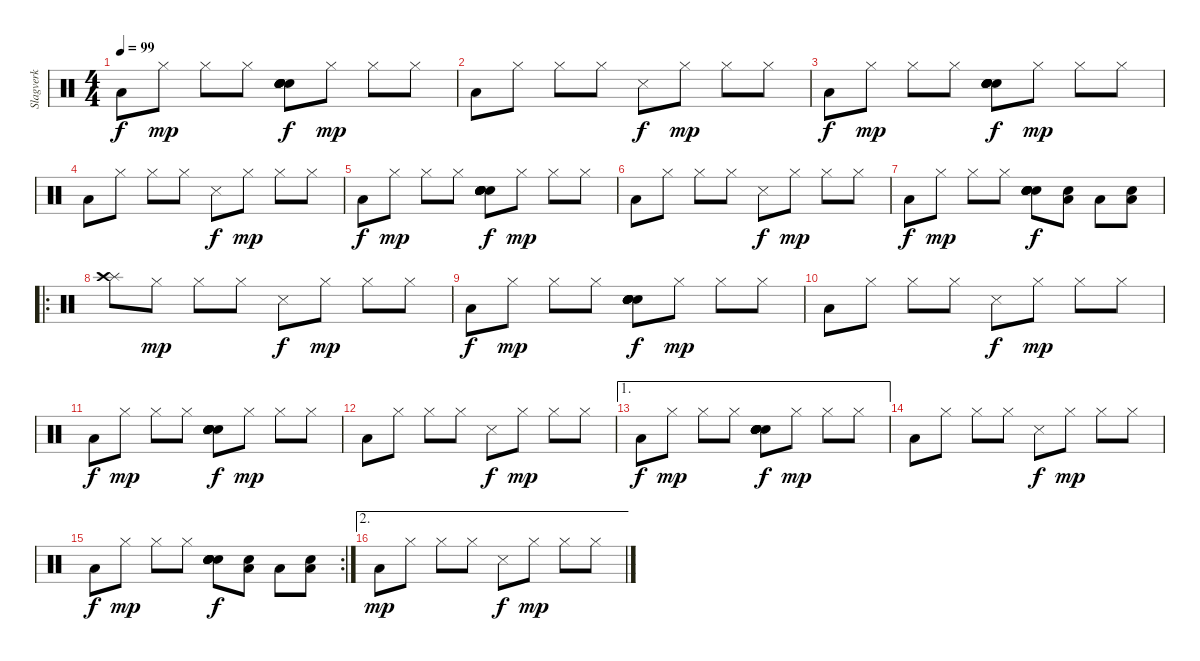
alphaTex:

\track ("Slagverk" "Slagverk") {instrument percussion}
\staff {score}
\articulation defaults
\ts (4 4)
\tempo 99
\clef neutral
\ks c "Low Tom (hit)".8{dy f} "Hi-Hat (closed)".8{dy mp} "Hi-Hat (closed)".8 "Hi-Hat (closed)".8
("Snare (hit) 2" "Snare (hit) 2" "Snare (hit) 2" "Snare (hit) 2" "Electric Snare (hit)" "Snare (hit) 2").8{dy f} "Hi-Hat (closed)".8{dy mp} "Hi-Hat (closed)".8 "Hi-Hat (closed)".8 |
"Low Tom (hit)".8 "Hi-Hat (closed)".8 "Hi-Hat (closed)".8 "Hi-Hat (closed)".8 "Snare (side stick) 3".8{dy f} "Hi-Hat (closed)".8{dy mp} "Hi-Hat (closed)".8 "Hi-Hat (closed)".8 |
"Low Tom (hit)".8{dy f} "Hi-Hat (closed)".8{dy mp} "Hi-Hat (closed)".8 "Hi-Hat (closed)".8 ("Snare (hit) 2" "Snare (hit) 2" "Snare (hit) 2" "Snare (hit) 2" "Electric Snare (hit)" "Snare (hit) 2").8{dy f} "Hi-Hat (closed)".8{dy mp} "Hi-Hat (closed)".8 "Hi-Hat (closed)".8 |
"Low Tom (hit)".8 "Hi-Hat (closed)".8 "Hi-Hat (closed)".8 "Hi-Hat (closed)".8 "Snare (side stick) 3".8{dy f} "Hi-Hat (closed)".8{dy mp} "Hi-Hat (closed)".8 "Hi-Hat (closed)".8 |
"Low Tom (hit)".8{dy f} "Hi-Hat (closed)".8{dy mp} "Hi-Hat (closed)".8 "Hi-Hat (closed)".8 ("Snare (hit) 2" "Snare (hit) 2" "Snare (hit) 2" "Snare (hit) 2" "Electric Snare (hit)" "Snare (hit) 2").8{dy f} "Hi-Hat (closed)".8{dy mp} "Hi-Hat (closed)".8 "Hi-Hat (closed)".8 |
"Low Tom (hit)".8 "Hi-Hat (closed)".8 "Hi-Hat (closed)".8 "Hi-Hat (closed)".8 "Snare (side stick) 3".8{dy f} "Hi-Hat (closed)".8{dy mp} "Hi-Hat (closed)".8 "Hi-Hat (closed)".8 |
"Low Tom (hit)".8{dy f} "Hi-Hat (closed)".8{dy mp} "Hi-Hat (closed)".8 "Hi-Hat (closed)".8 ("Snare (hit) 2" "Snare (hit) 2" "Snare (hit) 2" "Snare (hit) 2" "Electric Snare (hit)" "Snare (hit) 2").8{dy f} ("Low Floor Tom (hit)" "Snare (hit) 2").8 "Low Floor Tom (hit)".8 ("Low Floor Tom (hit)" "Snare (hit) 2").8 |
\ro
("Splash (hit)" "Crash high (hit)").8 "Hi-Hat (closed)".8{dy mp} "Hi-Hat (closed)".8 "Hi-Hat (closed)".8 "Snare (side stick) 3".8{dy f} "Hi-Hat (closed)".8{dy mp} "Hi-Hat (closed)".8 "Hi-Hat (closed)".8 |
"Low Tom (hit)".8{dy f} "Hi-Hat (closed)".8{dy mp} "Hi-Hat (closed)".8 "Hi-Hat (closed)".8 ("Snare (hit) 2" "Snare (hit) 2" "Snare (hit) 2" "Snare (hit) 2" "Electric Snare (hit)" "Snare (hit) 2").8{dy f} "Hi-Hat (closed)".8{dy mp} "Hi-Hat (closed)".8 "Hi-Hat (closed)".8 |
"Low Tom (hit)".8 "Hi-Hat (closed)".8 "Hi-Hat (closed)".8 "Hi-Hat (closed)".8 "Snare (side stick) 3".8{dy f} "Hi-Hat (closed)".8{dy mp} "Hi-Hat (closed)".8 "Hi-Hat (closed)".8 |
"Low Tom (hit)".8{dy f} "Hi-Hat (closed)".8{dy mp} "Hi-Hat (closed)".8 "Hi-Hat (closed)".8 ("Snare (hit) 2" "Snare (hit) 2" "Snare (hit) 2" "Snare (hit) 2" "Electric Snare (hit)" "Snare (hit) 2").8{dy f} "Hi-Hat (closed)".8{dy mp} "Hi-Hat (closed)".8 "Hi-Hat (closed)".8 |
"Low Tom (hit)".8 "Hi-Hat (closed)".8 "Hi-Hat (closed)".8 "Hi-Hat (closed)".8 "Snare (side stick) 3".8{dy f} "Hi-Hat (closed)".8{dy mp} "Hi-Hat (closed)".8 "Hi-Hat (closed)".8 |
\ae 1 "Low Tom (hit)".8{dy f} "Hi-Hat (closed)".8{dy mp} "Hi-Hat (closed)".8 "Hi-Hat (closed)".8
("Snare (hit) 2" "Snare (hit) 2" "Snare (hit) 2" "Snare (hit) 2" "Electric Snare (hit)" "Snare (hit) 2").8{dy f} "Hi-Hat (closed)".8{dy mp} "Hi-Hat (closed)".8 "Hi-Hat (closed)".8 |
"Low Tom (hit)".8 "Hi-Hat (closed)".8 "Hi-Hat (closed)".8 "Hi-Hat (closed)".8 "Snare (side stick) 3".8{dy f} "Hi-Hat (closed)".8{dy mp} "Hi-Hat (closed)".8 "Hi-Hat (closed)".8 |
\rc 2 "Low Tom (hit)".8{dy f} "Hi-Hat (closed)".8{dy mp} "Hi-Hat (closed)".8 "Hi-Hat (closed)".8
("Snare (hit) 2" "Snare (hit) 2" "Snare (hit) 2" "Snare (hit) 2" "Electric Snare (hit)" "Snare (hit) 2").8{dy f} ("Low Floor Tom (hit)" "Snare (hit) 2").8 "Low Floor Tom (hit)".8 ("Low Floor Tom (hit)" "Snare (hit) 2").8 |
\ae 2 "Low Tom (hit)".8{dy mp} "Hi-Hat (closed)".8 "Hi-Hat (closed)".8 "Hi-Hat (closed)".8 "Snare (side stick) 3".8{dy f} "Hi-Hat (closed)".8{dy mp} "Hi-Hat (closed)".8 "Hi-Hat (closed)".8
